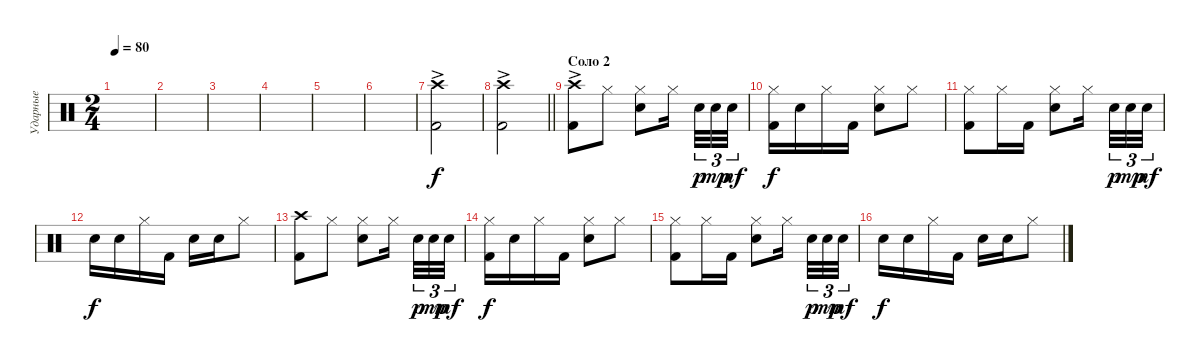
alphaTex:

\track ("Ударные" "Ударные") {instrument percussion}
\staff {score}
\articulation defaults
\ts (2 4)
\tempo 80
\clef neutral
\ks c
|
|
|
|
|
|
("Crash high (hit)"{ac} "Kick (hit) 2"{ac}).2 |
\barLineRight lightlight
("Crash high (hit)"{ac} "Kick (hit) 2"{ac}).2 |
\section ("" "Соло 2")
("Crash high (hit)"{ac} "Kick (hit) 2"{ac}).8 "Hi-Hat (closed)".8{dy f} ("Electric Snare (hit)" "Hi-Hat (closed)").8 "Hi-Hat (closed)".16{beam splitsecondary} "Electric Snare (hit)".32{tu (3 2) dy p} "Electric Snare (hit)".32{tu (3 2) dy mp} "Electric Snare (hit)".32{tu (3 2) dy mf} |
("Kick (hit) 2" "Hi-Hat (closed)").16{dy f} "Electric Snare (hit)".16 "Hi-Hat (closed)".16 "Kick (hit) 2".16 ("Electric Snare (hit)" "Hi-Hat (closed)").8 "Hi-Hat (closed)".8 |
("Hi-Hat (closed)" "Kick (hit) 2").8 "Hi-Hat (closed)".16 "Kick (hit) 2".16 ("Electric Snare (hit)" "Hi-Hat (closed)").8 "Hi-Hat (closed)".16{beam splitsecondary} "Electric Snare (hit)".32{tu (3 2) dy p} "Electric Snare (hit)".32{tu (3 2) dy mp} "Electric Snare (hit)".32{tu (3 2) dy mf} |
"Electric Snare (hit)".16{dy f} "Electric Snare (hit)".16 "Hi-Hat (closed)".16 "Kick (hit) 2".16 "Electric Snare (hit)".16 "Electric Snare (hit)".16 "Hi-Hat (closed)".8 |
("Crash high (hit)" "Kick (hit) 2").8 "Hi-Hat (closed)".8 ("Electric Snare (hit)" "Hi-Hat (closed)").8 "Hi-Hat (closed)".16{beam splitsecondary} "Electric Snare (hit)".32{tu (3 2) dy p} "Electric Snare (hit)".32{tu (3 2) dy mp} "Electric Snare (hit)".32{tu (3 2) dy mf} |
("Kick (hit) 2" "Hi-Hat (closed)").16{dy f} "Electric Snare (hit)".16 "Hi-Hat (closed)".16 "Kick (hit) 2".16 ("Electric Snare (hit)" "Hi-Hat (closed)").8 "Hi-Hat (closed)".8 |
("Hi-Hat (closed)" "Kick (hit) 2").8 "Hi-Hat (closed)".16 "Kick (hit) 2".16 ("Electric Snare (hit)" "Hi-Hat (closed)").8 "Hi-Hat (closed)".16{beam splitsecondary} "Electric Snare (hit)".32{tu (3 2) dy p} "Electric Snare (hit)".32{tu (3 2) dy mp} "Electric Snare (hit)".32{tu (3 2) dy mf} |
"Electric Snare (hit)".16{dy f} "Electric Snare (hit)".16 "Hi-Hat (closed)".16 "Kick (hit) 2".16 "Electric Snare (hit)".16 "Electric Snare (hit)".16 "Hi-Hat (closed)".8
